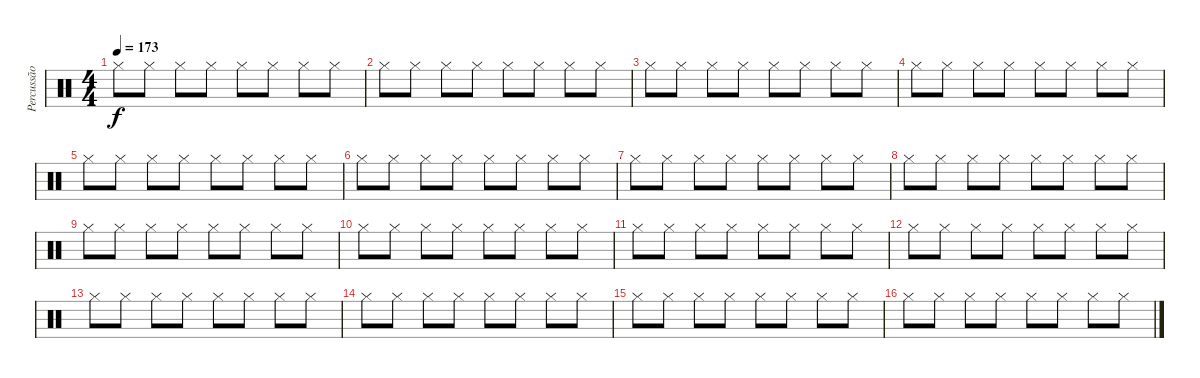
\track ("Percussão" "Percussão") {instrument percussion}
\staff {score}
\articulation defaults
\ts (4 4)
\tempo 173
\clef neutral
\ks c "Hi-Hat (closed)".8{dy f} "Hi-Hat (closed)".8 "Hi-Hat (closed)".8 "Hi-Hat (closed)".8 "Hi-Hat (closed)".8 "Hi-Hat (closed)".8 "Hi-Hat (closed)".8 "Hi-Hat (closed)".8
|
"Hi-Hat (closed)".8 "Hi-Hat (closed)".8 "Hi-Hat (closed)".8 "Hi-Hat (closed)".8 "Hi-Hat (closed)".8 "Hi-Hat (closed)".8 "Hi-Hat (closed)".8 "Hi-Hat (closed)".8 |
"Hi-Hat (closed)".8 "Hi-Hat (closed)".8 "Hi-Hat (closed)".8 "Hi-Hat (closed)".8 "Hi-Hat (closed)".8 "Hi-Hat (closed)".8 "Hi-Hat (closed)".8 "Hi-Hat (closed)".8 |
"Hi-Hat (closed)".8 "Hi-Hat (closed)".8 "Hi-Hat (closed)".8 "Hi-Hat (closed)".8 "Hi-Hat (closed)".8 "Hi-Hat (closed)".8 "Hi-Hat (closed)".8 "Hi-Hat (closed)".8 |
"Hi-Hat (closed)".8 "Hi-Hat (closed)".8 "Hi-Hat (closed)".8 "Hi-Hat (closed)".8 "Hi-Hat (closed)".8 "Hi-Hat (closed)".8 "Hi-Hat (closed)".8 "Hi-Hat (closed)".8 |
"Hi-Hat (closed)".8 "Hi-Hat (closed)".8 "Hi-Hat (closed)".8 "Hi-Hat (closed)".8 "Hi-Hat (closed)".8 "Hi-Hat (closed)".8 "Hi-Hat (closed)".8 "Hi-Hat (closed)".8 |
"Hi-Hat (closed)".8 "Hi-Hat (closed)".8 "Hi-Hat (closed)".8 "Hi-Hat (closed)".8 "Hi-Hat (closed)".8 "Hi-Hat (closed)".8 "Hi-Hat (closed)".8 "Hi-Hat (closed)".8 |
"Hi-Hat (closed)".8 "Hi-Hat (closed)".8 "Hi-Hat (closed)".8 "Hi-Hat (closed)".8 "Hi-Hat (closed)".8 "Hi-Hat (closed)".8 "Hi-Hat (closed)".8 "Hi-Hat (closed)".8 |
"Hi-Hat (closed)".8 "Hi-Hat (closed)".8 "Hi-Hat (closed)".8 "Hi-Hat (closed)".8 "Hi-Hat (closed)".8 "Hi-Hat (closed)".8 "Hi-Hat (closed)".8 "Hi-Hat (closed)".8 |
"Hi-Hat (closed)".8 "Hi-Hat (closed)".8 "Hi-Hat (closed)".8 "Hi-Hat (closed)".8 "Hi-Hat (closed)".8 "Hi-Hat (closed)".8 "Hi-Hat (closed)".8 "Hi-Hat (closed)".8 |
"Hi-Hat (closed)".8 "Hi-Hat (closed)".8 "Hi-Hat (closed)".8 "Hi-Hat (closed)".8 "Hi-Hat (closed)".8 "Hi-Hat (closed)".8 "Hi-Hat (closed)".8 "Hi-Hat (closed)".8 |
"Hi-Hat (closed)".8 "Hi-Hat (closed)".8 "Hi-Hat (closed)".8 "Hi-Hat (closed)".8 "Hi-Hat (closed)".8 "Hi-Hat (closed)".8 "Hi-Hat (closed)".8 "Hi-Hat (closed)".8 |
"Hi-Hat (closed)".8 "Hi-Hat (closed)".8 "Hi-Hat (closed)".8 "Hi-Hat (closed)".8 "Hi-Hat (closed)".8 "Hi-Hat (closed)".8 "Hi-Hat (closed)".8 "Hi-Hat (closed)".8 |
"Hi-Hat (closed)".8 "Hi-Hat (closed)".8 "Hi-Hat (closed)".8 "Hi-Hat (closed)".8 "Hi-Hat (closed)".8 "Hi-Hat (closed)".8 "Hi-Hat (closed)".8 "Hi-Hat (closed)".8 |
"Hi-Hat (closed)".8 "Hi-Hat (closed)".8 "Hi-Hat (closed)".8 "Hi-Hat (closed)".8 "Hi-Hat (closed)".8 "Hi-Hat (closed)".8 "Hi-Hat (closed)".8 "Hi-Hat (closed)".8 |
"Hi-Hat (closed)".8 "Hi-Hat (closed)".8 "Hi-Hat (closed)".8 "Hi-Hat (closed)".8 "Hi-Hat (closed)".8 "Hi-Hat (closed)".8 "Hi-Hat (closed)".8 "Hi-Hat (closed)".8
